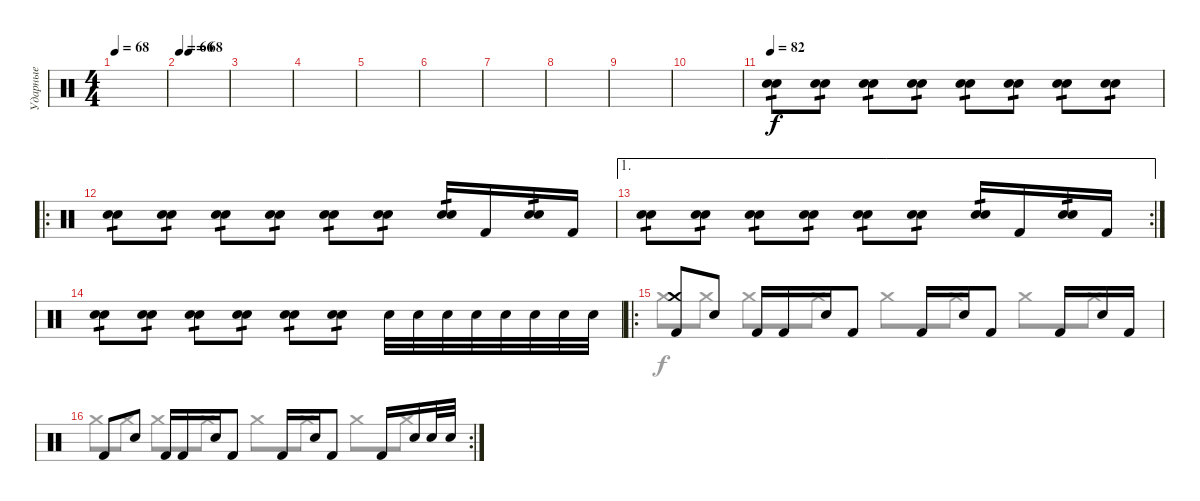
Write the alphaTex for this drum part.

\track ("Ударные" "Ударные") {instrument percussion}
\staff {score}
\articulation defaults
\voice
\ts (4 4)
\tempo 68
\clef neutral
\ks c
|
\tempo 66
\tempo (68 0.1875)
|
|
|
|
|
|
|
|
|
\tempo 82
("Electric Snare (hit)" "Electric Snare (hit)").8{tp 1} ("Electric Snare (hit)" "Electric Snare (hit)").8{tp 1} ("Electric Snare (hit)" "Electric Snare (hit)").8{tp 1} ("Electric Snare (hit)" "Electric Snare (hit)").8{tp 1} ("Electric Snare (hit)" "Electric Snare (hit)").8{tp 1} ("Electric Snare (hit)" "Electric Snare (hit)").8{tp 1} ("Electric Snare (hit)" "Electric Snare (hit)").8{tp 1} ("Electric Snare (hit)" "Electric Snare (hit)").8{tp 1} |
\ro
("Electric Snare (hit)" "Electric Snare (hit)").8{tp 1} ("Electric Snare (hit)" "Electric Snare (hit)").8{tp 1} ("Electric Snare (hit)" "Electric Snare (hit)").8{tp 1} ("Electric Snare (hit)" "Electric Snare (hit)").8{tp 1} ("Electric Snare (hit)" "Electric Snare (hit)").8{tp 1} ("Electric Snare (hit)" "Electric Snare (hit)").8{tp 1} ("Electric Snare (hit)" "Electric Snare (hit)").16{tp 1} "Kick (hit) 2".16 ("Electric Snare (hit)" "Electric Snare (hit)").16{tp 1} "Kick (hit) 2".16 |
\ae 1
\rc 2
("Electric Snare (hit)" "Electric Snare (hit)").8{tp 1} ("Electric Snare (hit)" "Electric Snare (hit)").8{tp 1} ("Electric Snare (hit)" "Electric Snare (hit)").8{tp 1} ("Electric Snare (hit)" "Electric Snare (hit)").8{tp 1} ("Electric Snare (hit)" "Electric Snare (hit)").8{tp 1} ("Electric Snare (hit)" "Electric Snare (hit)").8{tp 1} ("Electric Snare (hit)" "Electric Snare (hit)").16{tp 1} "Kick (hit) 2".16 ("Electric Snare (hit)" "Electric Snare (hit)").16{tp 1} "Kick (hit) 2".16 |
("Electric Snare (hit)" "Electric Snare (hit)").8{tp 1} ("Electric Snare (hit)" "Electric Snare (hit)").8{tp 1} ("Electric Snare (hit)" "Electric Snare (hit)").8{tp 1} ("Electric Snare (hit)" "Electric Snare (hit)").8{tp 1} ("Electric Snare (hit)" "Electric Snare (hit)").8{tp 1} ("Electric Snare (hit)" "Electric Snare (hit)").8{tp 1} "Electric Snare (hit)".32 "Electric Snare (hit)".32 "Electric Snare (hit)".32 "Electric Snare (hit)".32 "Snare (hit) 2".32 "Snare (hit) 2".32 "Snare (hit) 2".32 "Snare (hit) 2".32 |
\ro
("Crash medium (hit)" "Kick (hit) 2").8 "Snare (hit) 2".8 "Kick (hit) 2".16 "Kick (hit) 2".16 "Snare (hit) 2".16 "Kick (hit) 2".8 "Kick (hit) 2".16 "Snare (hit) 2".16 "Kick (hit) 2".8 "Kick (hit) 2".16 "Snare (hit) 2".16 "Kick (hit) 2".16 |
\rc 2 "Kick (hit) 2".8 "Snare (hit) 2".8 "Kick (hit) 2".16 "Kick (hit) 2".16 "Snare (hit) 2".16 "Kick (hit) 2".8 "Kick (hit) 2".16 "Snare (hit) 2".16 "Kick (hit) 2".8 "Kick (hit) 2".16 "Snare (hit) 2".16 "Snare (hit) 2".32 "Snare (hit) 2".32
\voice
\clef neutral
\ottava regular
\simile none
\ks c
|
|
|
|
|
|
|
|
|
|
|
|
|
|
"Crash medium (hit)".8 "Crash medium (hit)".8 "Crash medium (hit)".8 "Crash medium (hit)".8 "Crash medium (hit)".8 "Crash medium (hit)".8 "Crash medium (hit)".8 "Crash medium (hit)".8 |
"Crash medium (hit)".8 "Crash medium (hit)".8 "Crash medium (hit)".8 "Crash medium (hit)".8 "Crash medium (hit)".8 "Crash medium (hit)".8 "Crash medium (hit)".8 "Crash medium (hit)".8
